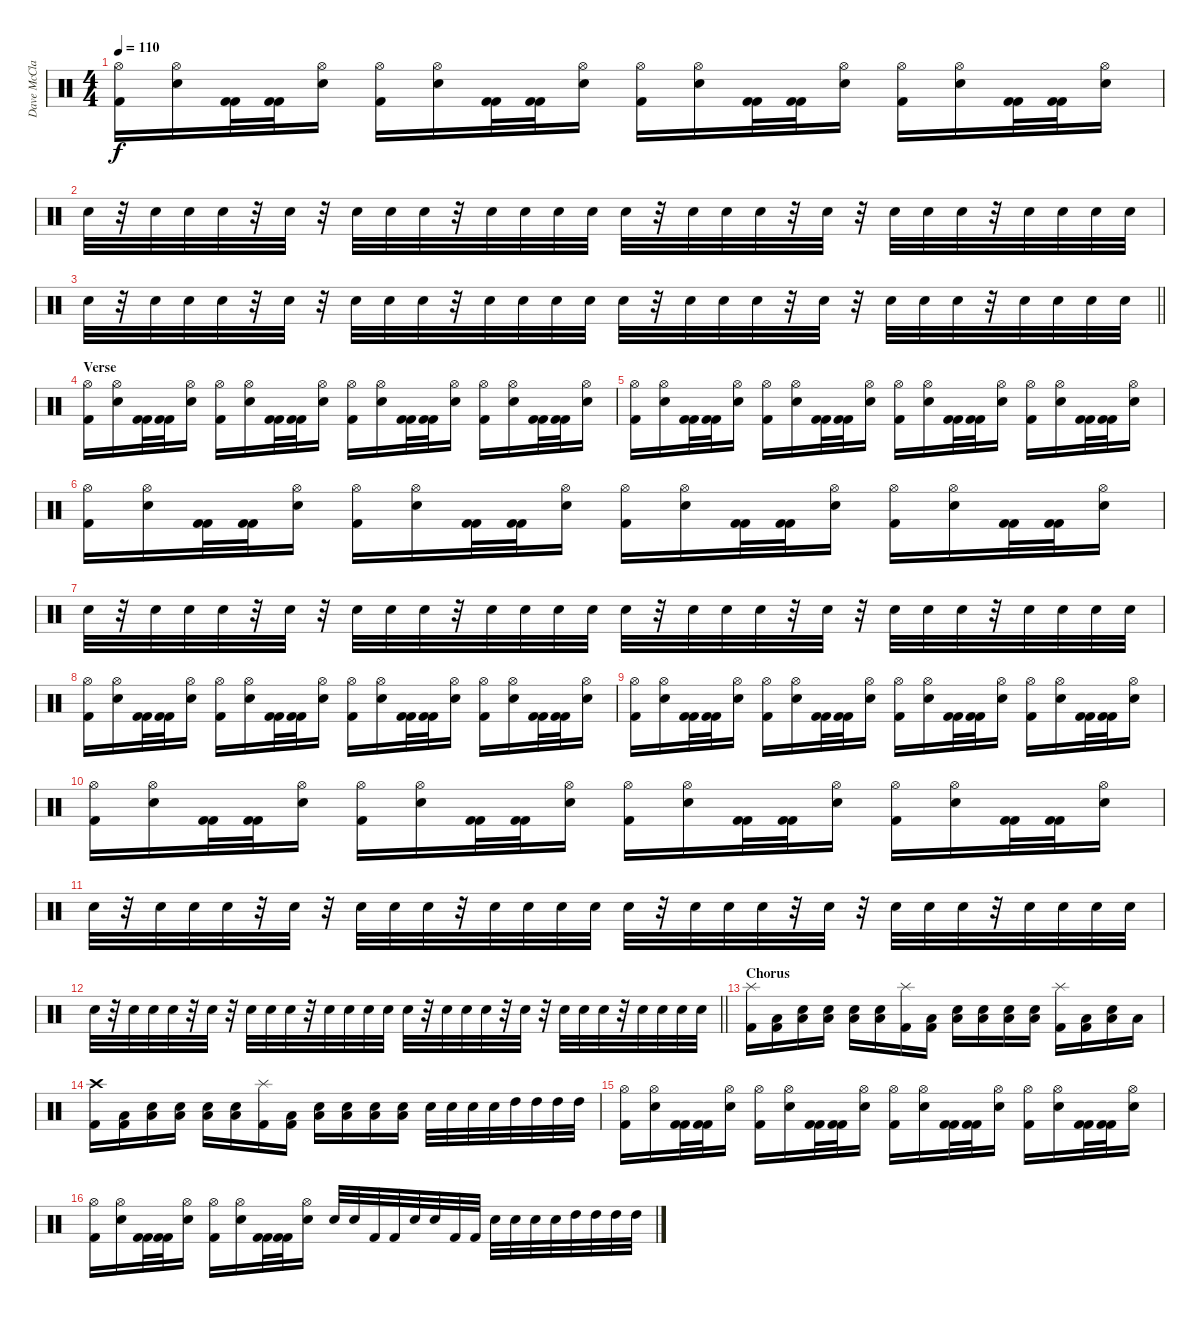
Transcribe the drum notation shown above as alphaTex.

\track ("Dave McClain" "Dave McCla") {instrument percussion}
\staff {score}
\articulation defaults
\ts (4 4)
\tempo 110
\clef neutral
\ks c
("Kick (hit) 2" "Hi-Hat (open)").16{dy f} ("Electric Snare (hit)" "Hi-Hat (open)").16 ("Kick (hit) 2" "Kick (hit) 2").32 ("Kick (hit) 2" "Kick (hit) 2").32 ("Hi-Hat (open)" "Electric Snare (hit)").16 ("Kick (hit) 2" "Hi-Hat (open)").16 ("Hi-Hat (open)" "Electric Snare (hit)").16 ("Kick (hit) 2" "Kick (hit) 2").32 ("Kick (hit) 2" "Kick (hit) 2").32 ("Electric Snare (hit)" "Hi-Hat (open)").16 ("Kick (hit) 2" "Hi-Hat (open)").16 ("Electric Snare (hit)" "Hi-Hat (open)").16 ("Kick (hit) 2" "Kick (hit) 2").32 ("Kick (hit) 2" "Kick (hit) 2").32 ("Hi-Hat (open)" "Electric Snare (hit)").16 ("Kick (hit) 2" "Hi-Hat (open)").16 ("Hi-Hat (open)" "Electric Snare (hit)").16 ("Kick (hit) 2" "Kick (hit) 2").32 ("Kick (hit) 2" "Kick (hit) 2").32 ("Electric Snare (hit)" "Hi-Hat (open)").16 |
"Electric Snare (hit)".32 r.32 "Electric Snare (hit)".32 "Electric Snare (hit)".32 "Electric Snare (hit)".32 r.32 "Electric Snare (hit)".32 r.32 "Electric Snare (hit)".32 "Electric Snare (hit)".32 "Electric Snare (hit)".32 r.32 "Electric Snare (hit)".32 "Electric Snare (hit)".32 "Electric Snare (hit)".32 "Electric Snare (hit)".32 "Electric Snare (hit)".32 r.32 "Electric Snare (hit)".32 "Electric Snare (hit)".32 "Electric Snare (hit)".32 r.32 "Electric Snare (hit)".32 r.32 "Electric Snare (hit)".32 "Electric Snare (hit)".32 "Electric Snare (hit)".32 r.32 "Electric Snare (hit)".32 "Electric Snare (hit)".32 "Electric Snare (hit)".32 "Electric Snare (hit)".32 |
\barLineRight lightlight "Electric Snare (hit)".32
r.32 "Electric Snare (hit)".32 "Electric Snare (hit)".32 "Electric Snare (hit)".32 r.32 "Electric Snare (hit)".32 r.32 "Electric Snare (hit)".32 "Electric Snare (hit)".32 "Electric Snare (hit)".32 r.32 "Electric Snare (hit)".32 "Electric Snare (hit)".32 "Electric Snare (hit)".32 "Electric Snare (hit)".32 "Electric Snare (hit)".32 r.32 "Electric Snare (hit)".32 "Electric Snare (hit)".32 "Electric Snare (hit)".32 r.32 "Electric Snare (hit)".32 r.32 "Electric Snare (hit)".32 "Electric Snare (hit)".32 "Electric Snare (hit)".32 r.32 "Electric Snare (hit)".32 "Electric Snare (hit)".32 "Electric Snare (hit)".32 "Electric Snare (hit)".32 |
\section ("" "Verse")
("Kick (hit) 2" "Hi-Hat (open)").16 ("Electric Snare (hit)" "Hi-Hat (open)").16 ("Kick (hit) 2" "Kick (hit) 2").32 ("Kick (hit) 2" "Kick (hit) 2").32 ("Hi-Hat (open)" "Electric Snare (hit)").16 ("Kick (hit) 2" "Hi-Hat (open)").16 ("Hi-Hat (open)" "Electric Snare (hit)").16 ("Kick (hit) 2" "Kick (hit) 2").32 ("Kick (hit) 2" "Kick (hit) 2").32 ("Electric Snare (hit)" "Hi-Hat (open)").16 ("Kick (hit) 2" "Hi-Hat (open)").16 ("Electric Snare (hit)" "Hi-Hat (open)").16 ("Kick (hit) 2" "Kick (hit) 2").32 ("Kick (hit) 2" "Kick (hit) 2").32 ("Hi-Hat (open)" "Electric Snare (hit)").16 ("Kick (hit) 2" "Hi-Hat (open)").16 ("Hi-Hat (open)" "Electric Snare (hit)").16 ("Kick (hit) 2" "Kick (hit) 2").32 ("Kick (hit) 2" "Kick (hit) 2").32 ("Electric Snare (hit)" "Hi-Hat (open)").16 |
("Kick (hit) 2" "Hi-Hat (open)").16 ("Electric Snare (hit)" "Hi-Hat (open)").16 ("Kick (hit) 2" "Kick (hit) 2").32 ("Kick (hit) 2" "Kick (hit) 2").32 ("Hi-Hat (open)" "Electric Snare (hit)").16 ("Kick (hit) 2" "Hi-Hat (open)").16 ("Hi-Hat (open)" "Electric Snare (hit)").16 ("Kick (hit) 2" "Kick (hit) 2").32 ("Kick (hit) 2" "Kick (hit) 2").32 ("Electric Snare (hit)" "Hi-Hat (open)").16 ("Kick (hit) 2" "Hi-Hat (open)").16 ("Electric Snare (hit)" "Hi-Hat (open)").16 ("Kick (hit) 2" "Kick (hit) 2").32 ("Kick (hit) 2" "Kick (hit) 2").32 ("Hi-Hat (open)" "Electric Snare (hit)").16 ("Kick (hit) 2" "Hi-Hat (open)").16 ("Hi-Hat (open)" "Electric Snare (hit)").16 ("Kick (hit) 2" "Kick (hit) 2").32 ("Kick (hit) 2" "Kick (hit) 2").32 ("Electric Snare (hit)" "Hi-Hat (open)").16 |
("Kick (hit) 2" "Hi-Hat (open)").16 ("Electric Snare (hit)" "Hi-Hat (open)").16 ("Kick (hit) 2" "Kick (hit) 2").32 ("Kick (hit) 2" "Kick (hit) 2").32 ("Hi-Hat (open)" "Electric Snare (hit)").16 ("Kick (hit) 2" "Hi-Hat (open)").16 ("Hi-Hat (open)" "Electric Snare (hit)").16 ("Kick (hit) 2" "Kick (hit) 2").32 ("Kick (hit) 2" "Kick (hit) 2").32 ("Electric Snare (hit)" "Hi-Hat (open)").16 ("Kick (hit) 2" "Hi-Hat (open)").16 ("Electric Snare (hit)" "Hi-Hat (open)").16 ("Kick (hit) 2" "Kick (hit) 2").32 ("Kick (hit) 2" "Kick (hit) 2").32 ("Hi-Hat (open)" "Electric Snare (hit)").16 ("Kick (hit) 2" "Hi-Hat (open)").16 ("Hi-Hat (open)" "Electric Snare (hit)").16 ("Kick (hit) 2" "Kick (hit) 2").32 ("Kick (hit) 2" "Kick (hit) 2").32 ("Electric Snare (hit)" "Hi-Hat (open)").16 |
"Electric Snare (hit)".32 r.32 "Electric Snare (hit)".32 "Electric Snare (hit)".32 "Electric Snare (hit)".32 r.32 "Electric Snare (hit)".32 r.32 "Electric Snare (hit)".32 "Electric Snare (hit)".32 "Electric Snare (hit)".32 r.32 "Electric Snare (hit)".32 "Electric Snare (hit)".32 "Electric Snare (hit)".32 "Electric Snare (hit)".32 "Electric Snare (hit)".32 r.32 "Electric Snare (hit)".32 "Electric Snare (hit)".32 "Electric Snare (hit)".32 r.32 "Electric Snare (hit)".32 r.32 "Electric Snare (hit)".32 "Electric Snare (hit)".32 "Electric Snare (hit)".32 r.32 "Electric Snare (hit)".32 "Electric Snare (hit)".32 "Electric Snare (hit)".32 "Electric Snare (hit)".32 |
("Kick (hit) 2" "Hi-Hat (open)").16 ("Electric Snare (hit)" "Hi-Hat (open)").16 ("Kick (hit) 2" "Kick (hit) 2").32 ("Kick (hit) 2" "Kick (hit) 2").32 ("Hi-Hat (open)" "Electric Snare (hit)").16 ("Kick (hit) 2" "Hi-Hat (open)").16 ("Hi-Hat (open)" "Electric Snare (hit)").16 ("Kick (hit) 2" "Kick (hit) 2").32 ("Kick (hit) 2" "Kick (hit) 2").32 ("Electric Snare (hit)" "Hi-Hat (open)").16 ("Kick (hit) 2" "Hi-Hat (open)").16 ("Electric Snare (hit)" "Hi-Hat (open)").16 ("Kick (hit) 2" "Kick (hit) 2").32 ("Kick (hit) 2" "Kick (hit) 2").32 ("Hi-Hat (open)" "Electric Snare (hit)").16 ("Kick (hit) 2" "Hi-Hat (open)").16 ("Hi-Hat (open)" "Electric Snare (hit)").16 ("Kick (hit) 2" "Kick (hit) 2").32 ("Kick (hit) 2" "Kick (hit) 2").32 ("Electric Snare (hit)" "Hi-Hat (open)").16 |
("Kick (hit) 2" "Hi-Hat (open)").16 ("Electric Snare (hit)" "Hi-Hat (open)").16 ("Kick (hit) 2" "Kick (hit) 2").32 ("Kick (hit) 2" "Kick (hit) 2").32 ("Hi-Hat (open)" "Electric Snare (hit)").16 ("Kick (hit) 2" "Hi-Hat (open)").16 ("Hi-Hat (open)" "Electric Snare (hit)").16 ("Kick (hit) 2" "Kick (hit) 2").32 ("Kick (hit) 2" "Kick (hit) 2").32 ("Electric Snare (hit)" "Hi-Hat (open)").16 ("Kick (hit) 2" "Hi-Hat (open)").16 ("Electric Snare (hit)" "Hi-Hat (open)").16 ("Kick (hit) 2" "Kick (hit) 2").32 ("Kick (hit) 2" "Kick (hit) 2").32 ("Hi-Hat (open)" "Electric Snare (hit)").16 ("Kick (hit) 2" "Hi-Hat (open)").16 ("Hi-Hat (open)" "Electric Snare (hit)").16 ("Kick (hit) 2" "Kick (hit) 2").32 ("Kick (hit) 2" "Kick (hit) 2").32 ("Electric Snare (hit)" "Hi-Hat (open)").16 |
("Kick (hit) 2" "Hi-Hat (open)").16 ("Electric Snare (hit)" "Hi-Hat (open)").16 ("Kick (hit) 2" "Kick (hit) 2").32 ("Kick (hit) 2" "Kick (hit) 2").32 ("Hi-Hat (open)" "Electric Snare (hit)").16 ("Kick (hit) 2" "Hi-Hat (open)").16 ("Hi-Hat (open)" "Electric Snare (hit)").16 ("Kick (hit) 2" "Kick (hit) 2").32 ("Kick (hit) 2" "Kick (hit) 2").32 ("Electric Snare (hit)" "Hi-Hat (open)").16 ("Kick (hit) 2" "Hi-Hat (open)").16 ("Electric Snare (hit)" "Hi-Hat (open)").16 ("Kick (hit) 2" "Kick (hit) 2").32 ("Kick (hit) 2" "Kick (hit) 2").32 ("Hi-Hat (open)" "Electric Snare (hit)").16 ("Kick (hit) 2" "Hi-Hat (open)").16 ("Hi-Hat (open)" "Electric Snare (hit)").16 ("Kick (hit) 2" "Kick (hit) 2").32 ("Kick (hit) 2" "Kick (hit) 2").32 ("Electric Snare (hit)" "Hi-Hat (open)").16 |
"Electric Snare (hit)".32 r.32 "Electric Snare (hit)".32 "Electric Snare (hit)".32 "Electric Snare (hit)".32 r.32 "Electric Snare (hit)".32 r.32 "Electric Snare (hit)".32 "Electric Snare (hit)".32 "Electric Snare (hit)".32 r.32 "Electric Snare (hit)".32 "Electric Snare (hit)".32 "Electric Snare (hit)".32 "Electric Snare (hit)".32 "Electric Snare (hit)".32 r.32 "Electric Snare (hit)".32 "Electric Snare (hit)".32 "Electric Snare (hit)".32 r.32 "Electric Snare (hit)".32 r.32 "Electric Snare (hit)".32 "Electric Snare (hit)".32 "Electric Snare (hit)".32 r.32 "Electric Snare (hit)".32 "Electric Snare (hit)".32 "Electric Snare (hit)".32 "Electric Snare (hit)".32 |
\barLineRight lightlight "Electric Snare (hit)".32
r.32 "Electric Snare (hit)".32 "Electric Snare (hit)".32 "Electric Snare (hit)".32 r.32 "Electric Snare (hit)".32 r.32 "Electric Snare (hit)".32 "Electric Snare (hit)".32 "Electric Snare (hit)".32 r.32 "Electric Snare (hit)".32 "Electric Snare (hit)".32 "Electric Snare (hit)".32 "Electric Snare (hit)".32 "Electric Snare (hit)".32 r.32 "Electric Snare (hit)".32 "Electric Snare (hit)".32 "Electric Snare (hit)".32 r.32 "Electric Snare (hit)".32 r.32 "Electric Snare (hit)".32 "Electric Snare (hit)".32 "Electric Snare (hit)".32 r.32 "Electric Snare (hit)".32 "Electric Snare (hit)".32 "Electric Snare (hit)".32 "Electric Snare (hit)".32 |
\section ("" "Chorus")
("Splash (hit)" "Kick (hit) 2").16 ("Kick (hit) 2" "Low Tom (hit)").16 ("Electric Snare (hit)" "Low Tom (hit)").16 ("Electric Snare (hit)" "Low Tom (hit)").16 ("Electric Snare (hit)" "Low Tom (hit)").16 ("Low Tom (hit)" "Electric Snare (hit)").16 ("Splash (hit)" "Kick (hit) 2").16 ("Kick (hit) 2" "Low Tom (hit)").16 ("Electric Snare (hit)" "Low Tom (hit)").16 ("Electric Snare (hit)" "Low Tom (hit)").16 ("Electric Snare (hit)" "Low Tom (hit)").16 ("Low Tom (hit)" "Electric Snare (hit)").16 ("Kick (hit) 2" "Splash (hit)").16 ("Low Tom (hit)" "Kick (hit) 2").16 ("Low Tom (hit)" "Electric Snare (hit)").16 "Low Tom (hit)".16 |
("Crash high (hit)" "Kick (hit) 2").16 ("Kick (hit) 2" "Low Tom (hit)").16 ("Electric Snare (hit)" "Low Tom (hit)").16 ("Electric Snare (hit)" "Low Tom (hit)").16 ("Electric Snare (hit)" "Low Tom (hit)").16 ("Low Tom (hit)" "Electric Snare (hit)").16 ("Splash (hit)" "Kick (hit) 2").16 ("Kick (hit) 2" "Low Tom (hit)").16 ("Electric Snare (hit)" "Low Tom (hit)").16 ("Electric Snare (hit)" "Low Tom (hit)").16 ("Electric Snare (hit)" "Low Tom (hit)").16 ("Low Tom (hit)" "Electric Snare (hit)").16 "Electric Snare (hit)".32 "Electric Snare (hit)".32 "Electric Snare (hit)".32 "Electric Snare (hit)".32 "High Tom (hit)".32 "High Tom (hit)".32 "High Tom (hit)".32 "High Tom (hit)".32 |
("Kick (hit) 2" "Hi-Hat (open)").16 ("Electric Snare (hit)" "Hi-Hat (open)").16 ("Kick (hit) 2" "Kick (hit) 2").32 ("Kick (hit) 2" "Kick (hit) 2").32 ("Hi-Hat (open)" "Electric Snare (hit)").16 ("Kick (hit) 2" "Hi-Hat (open)").16 ("Hi-Hat (open)" "Electric Snare (hit)").16 ("Kick (hit) 2" "Kick (hit) 2").32 ("Kick (hit) 2" "Kick (hit) 2").32 ("Electric Snare (hit)" "Hi-Hat (open)").16 ("Kick (hit) 2" "Hi-Hat (open)").16 ("Electric Snare (hit)" "Hi-Hat (open)").16 ("Kick (hit) 2" "Kick (hit) 2").32 ("Kick (hit) 2" "Kick (hit) 2").32 ("Hi-Hat (open)" "Electric Snare (hit)").16 ("Kick (hit) 2" "Hi-Hat (open)").16 ("Hi-Hat (open)" "Electric Snare (hit)").16 ("Kick (hit) 2" "Kick (hit) 2").32 ("Kick (hit) 2" "Kick (hit) 2").32 ("Electric Snare (hit)" "Hi-Hat (open)").16 |
("Kick (hit) 2" "Hi-Hat (open)").16 ("Electric Snare (hit)" "Hi-Hat (open)").16 ("Kick (hit) 2" "Kick (hit) 2").32 ("Kick (hit) 2" "Kick (hit) 2").32 ("Hi-Hat (open)" "Electric Snare (hit)").16 ("Kick (hit) 2" "Hi-Hat (open)").16 ("Hi-Hat (open)" "Electric Snare (hit)").16 ("Kick (hit) 2" "Kick (hit) 2").32 ("Kick (hit) 2" "Kick (hit) 2").32 ("Electric Snare (hit)" "Hi-Hat (open)").16 "Electric Snare (hit)".32 "Electric Snare (hit)".32 "Kick (hit) 2".32 "Kick (hit) 2".32 "Electric Snare (hit)".32 "Electric Snare (hit)".32 "Kick (hit) 2".32 "Kick (hit) 2".32 "Electric Snare (hit)".32 "Electric Snare (hit)".32 "Electric Snare (hit)".32 "Electric Snare (hit)".32 "High Tom (hit)".32 "High Tom (hit)".32 "High Tom (hit)".32 "High Tom (hit)".32
